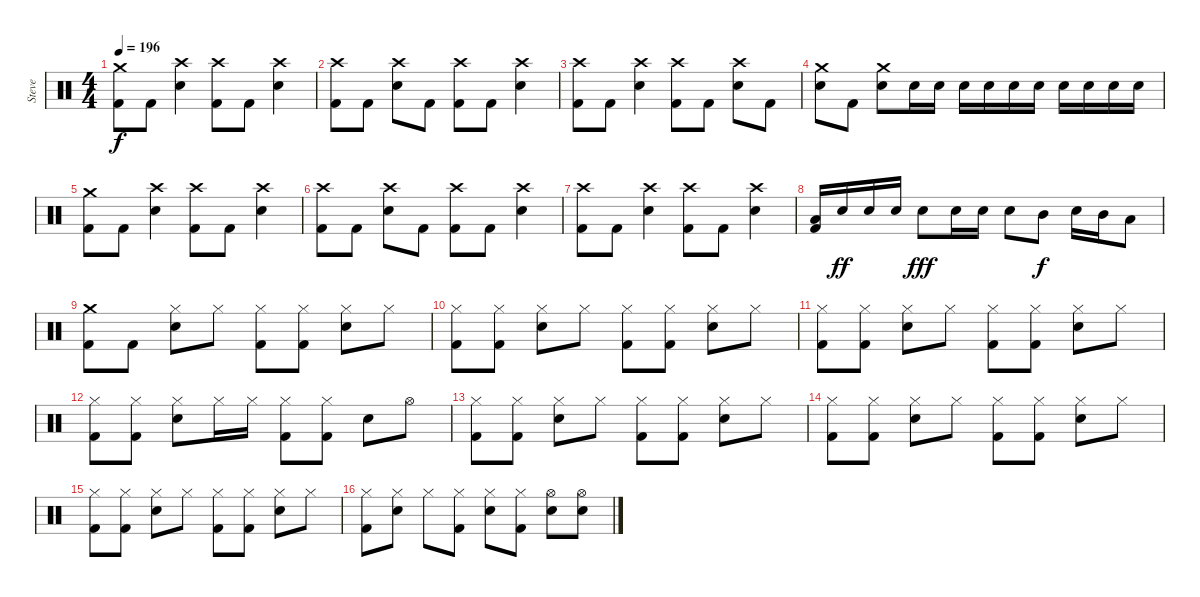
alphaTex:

\track ("Steve" "Steve") {instrument percussion}
\staff {score}
\articulation defaults
\ts (4 4)
\tempo 196
\clef neutral
\ks c
("Crash medium (hit)" "Kick (hit) 2").8{dy f} "Kick (hit) 2".8 ("Crash high (hit)" "Electric Snare (hit)").4 ("Crash high (hit)" "Kick (hit) 2").8 "Kick (hit) 2".8 ("Crash high (hit)" "Electric Snare (hit)").4 |
("Crash high (hit)" "Kick (hit) 2").8 "Kick (hit) 2".8 ("Crash high (hit)" "Electric Snare (hit)").8 "Kick (hit) 2".8 ("Crash high (hit)" "Kick (hit) 2").8 "Kick (hit) 2".8 ("Crash high (hit)" "Electric Snare (hit)").4 |
("Crash high (hit)" "Kick (hit) 2").8 "Kick (hit) 2".8 ("Crash high (hit)" "Electric Snare (hit)").4 ("Crash high (hit)" "Kick (hit) 2").8 "Kick (hit) 2".8 ("Crash high (hit)" "Electric Snare (hit)").8 "Kick (hit) 2".8 |
("Crash medium (hit)" "Electric Snare (hit)").8 "Kick (hit) 2".8 ("Crash medium (hit)" "Electric Snare (hit)").8 "Electric Snare (hit)".16 "Electric Snare (hit)".16 "Electric Snare (hit)".16 "Electric Snare (hit)".16 "Electric Snare (hit)".16 "Electric Snare (hit)".16 "Electric Snare (hit)".16 "Electric Snare (hit)".16 "Electric Snare (hit)".16 "Electric Snare (hit)".16 |
("Crash medium (hit)" "Kick (hit) 2").8 "Kick (hit) 2".8 ("Crash high (hit)" "Electric Snare (hit)").4 ("Crash high (hit)" "Kick (hit) 2").8 "Kick (hit) 2".8 ("Crash high (hit)" "Electric Snare (hit)").4 |
("Crash high (hit)" "Kick (hit) 2").8 "Kick (hit) 2".8 ("Crash high (hit)" "Electric Snare (hit)").8 "Kick (hit) 2".8 ("Crash high (hit)" "Kick (hit) 2").8 "Kick (hit) 2".8 ("Crash high (hit)" "Electric Snare (hit)").4 |
("Crash high (hit)" "Kick (hit) 2").8 "Kick (hit) 2".8 ("Crash high (hit)" "Electric Snare (hit)").4 ("Crash high (hit)" "Kick (hit) 2").8 "Kick (hit) 2".8 ("Crash high (hit)" "Electric Snare (hit)").4 |
("Low Tom (hit)" "Kick (hit) 2").16 "Electric Snare (hit)".16{dy ff} "Electric Snare (hit)".16 "Electric Snare (hit)".16 "Electric Snare (hit)".8{dy fff} "Electric Snare (hit)".16 "Electric Snare (hit)".16 "Electric Snare (hit)".8 "Mid Tom (hit)".8{dy f} "Electric Snare (hit)".16 "Mid Tom (hit)".16 "Low Tom (hit)".8 |
("Crash medium (hit)" "Kick (hit) 2").8 "Kick (hit) 2".8 ("Hi-Hat (closed)" "Electric Snare (hit)").8 "Hi-Hat (closed)".8 ("Hi-Hat (closed)" "Kick (hit) 2").8 ("Hi-Hat (closed)" "Kick (hit) 2").8 ("Hi-Hat (closed)" "Electric Snare (hit)").8 "Hi-Hat (closed)".8 |
("Hi-Hat (closed)" "Kick (hit) 2").8 ("Hi-Hat (closed)" "Kick (hit) 2").8 ("Hi-Hat (closed)" "Electric Snare (hit)").8 "Hi-Hat (closed)".8 ("Hi-Hat (closed)" "Kick (hit) 2").8 ("Hi-Hat (closed)" "Kick (hit) 2").8 ("Hi-Hat (closed)" "Electric Snare (hit)").8 "Hi-Hat (closed)".8 |
("Hi-Hat (closed)" "Kick (hit) 2").8 ("Hi-Hat (closed)" "Kick (hit) 2").8 ("Hi-Hat (closed)" "Electric Snare (hit)").8 "Hi-Hat (closed)".8 ("Hi-Hat (closed)" "Kick (hit) 2").8 ("Hi-Hat (closed)" "Kick (hit) 2").8 ("Hi-Hat (closed)" "Electric Snare (hit)").8 "Hi-Hat (closed)".8 |
("Hi-Hat (closed)" "Kick (hit) 2").8 ("Hi-Hat (closed)" "Kick (hit) 2").8 ("Hi-Hat (closed)" "Electric Snare (hit)").8 "Hi-Hat (closed)".16 "Hi-Hat (closed)".16 ("Hi-Hat (closed)" "Kick (hit) 2").8 ("Hi-Hat (closed)" "Kick (hit) 2").8 "Electric Snare (hit)".8 "Hi-Hat (open)".8 |
("Hi-Hat (closed)" "Kick (hit) 2").8 ("Hi-Hat (closed)" "Kick (hit) 2").8 ("Hi-Hat (closed)" "Electric Snare (hit)").8 "Hi-Hat (closed)".8 ("Hi-Hat (closed)" "Kick (hit) 2").8 ("Hi-Hat (closed)" "Kick (hit) 2").8 ("Hi-Hat (closed)" "Electric Snare (hit)").8 "Hi-Hat (closed)".8 |
("Hi-Hat (closed)" "Kick (hit) 2").8 ("Hi-Hat (closed)" "Kick (hit) 2").8 ("Hi-Hat (closed)" "Electric Snare (hit)").8 "Hi-Hat (closed)".8 ("Hi-Hat (closed)" "Kick (hit) 2").8 ("Hi-Hat (closed)" "Kick (hit) 2").8 ("Hi-Hat (closed)" "Electric Snare (hit)").8 "Hi-Hat (closed)".8 |
("Hi-Hat (closed)" "Kick (hit) 2").8 ("Hi-Hat (closed)" "Kick (hit) 2").8 ("Hi-Hat (closed)" "Electric Snare (hit)").8 "Hi-Hat (closed)".8 ("Hi-Hat (closed)" "Kick (hit) 2").8 ("Hi-Hat (closed)" "Kick (hit) 2").8 ("Hi-Hat (closed)" "Electric Snare (hit)").8 "Hi-Hat (closed)".8 |
("Hi-Hat (closed)" "Kick (hit) 2").8 ("Hi-Hat (closed)" "Electric Snare (hit)").8 "Hi-Hat (closed)".8 ("Hi-Hat (closed)" "Kick (hit) 2").8 ("Hi-Hat (closed)" "Electric Snare (hit)").8 ("Hi-Hat (closed)" "Kick (hit) 2").8 ("Hi-Hat (open)" "Electric Snare (hit)").8 ("Hi-Hat (open)" "Electric Snare (hit)").8
